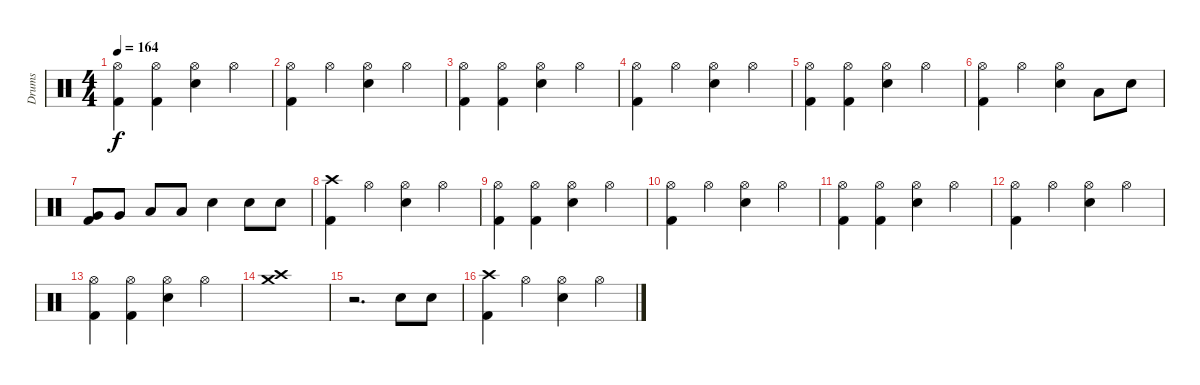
\track ("Drums" "Drums") {instrument percussion}
\staff {score}
\articulation defaults
\ts (4 4)
\tempo 164
\clef neutral
\ks c
("Hi-Hat (open)" "Kick (hit) 2").4{dy f} ("Hi-Hat (open)" "Kick (hit) 2").4 ("Hi-Hat (open)" "Snare (hit) 2").4 "Hi-Hat (open)".4 |
("Hi-Hat (open)" "Kick (hit) 2").4 "Hi-Hat (open)".4 ("Hi-Hat (open)" "Snare (hit) 2").4 "Hi-Hat (open)".4 |
("Hi-Hat (open)" "Kick (hit) 2").4 ("Hi-Hat (open)" "Kick (hit) 2").4 ("Hi-Hat (open)" "Snare (hit) 2").4 "Hi-Hat (open)".4 |
("Hi-Hat (open)" "Kick (hit) 2").4 "Hi-Hat (open)".4 ("Hi-Hat (open)" "Snare (hit) 2").4 "Hi-Hat (open)".4 |
("Hi-Hat (open)" "Kick (hit) 2").4 ("Hi-Hat (open)" "Kick (hit) 2").4 ("Hi-Hat (open)" "Snare (hit) 2").4 "Hi-Hat (open)".4 |
("Hi-Hat (open)" "Kick (hit) 2").4 "Hi-Hat (open)".4 ("Hi-Hat (open)" "Snare (hit) 2").4 "Low Tom (hit)".8 "Snare (hit) 2".8 |
("Kick (hit) 2" "Very Low Tom (hit)").8 "Very Low Tom (hit)".8 "Low Floor Tom (hit)".8 "Low Floor Tom (hit)".8 "Snare (hit) 2".4 "Snare (hit) 2".8 "Snare (hit) 2".8 |
("Crash high (hit)" "Kick (hit) 2").4 "Hi-Hat (open)".4 ("Hi-Hat (open)" "Snare (hit) 2").4 "Hi-Hat (open)".4 |
("Hi-Hat (open)" "Kick (hit) 2").4 ("Hi-Hat (open)" "Kick (hit) 2").4 ("Hi-Hat (open)" "Snare (hit) 2").4 "Hi-Hat (open)".4 |
("Hi-Hat (open)" "Kick (hit) 2").4 "Hi-Hat (open)".4 ("Hi-Hat (open)" "Snare (hit) 2").4 "Hi-Hat (open)".4 |
("Hi-Hat (open)" "Kick (hit) 2").4 ("Hi-Hat (open)" "Kick (hit) 2").4 ("Hi-Hat (open)" "Snare (hit) 2").4 "Hi-Hat (open)".4 |
("Hi-Hat (open)" "Kick (hit) 2").4 "Hi-Hat (open)".4 ("Hi-Hat (open)" "Snare (hit) 2").4 "Hi-Hat (open)".4 |
("Hi-Hat (open)" "Kick (hit) 2").4 ("Hi-Hat (open)" "Kick (hit) 2").4 ("Hi-Hat (open)" "Snare (hit) 2").4 "Hi-Hat (open)".4 |
("Crash high (hit)" "Crash medium (hit)").1 |
r.2{d} "Snare (hit) 2".8 "Snare (hit) 2".8 |
("Crash high (hit)" "Kick (hit) 2").4 "Hi-Hat (open)".4 ("Hi-Hat (open)" "Snare (hit) 2").4 "Hi-Hat (open)".4
